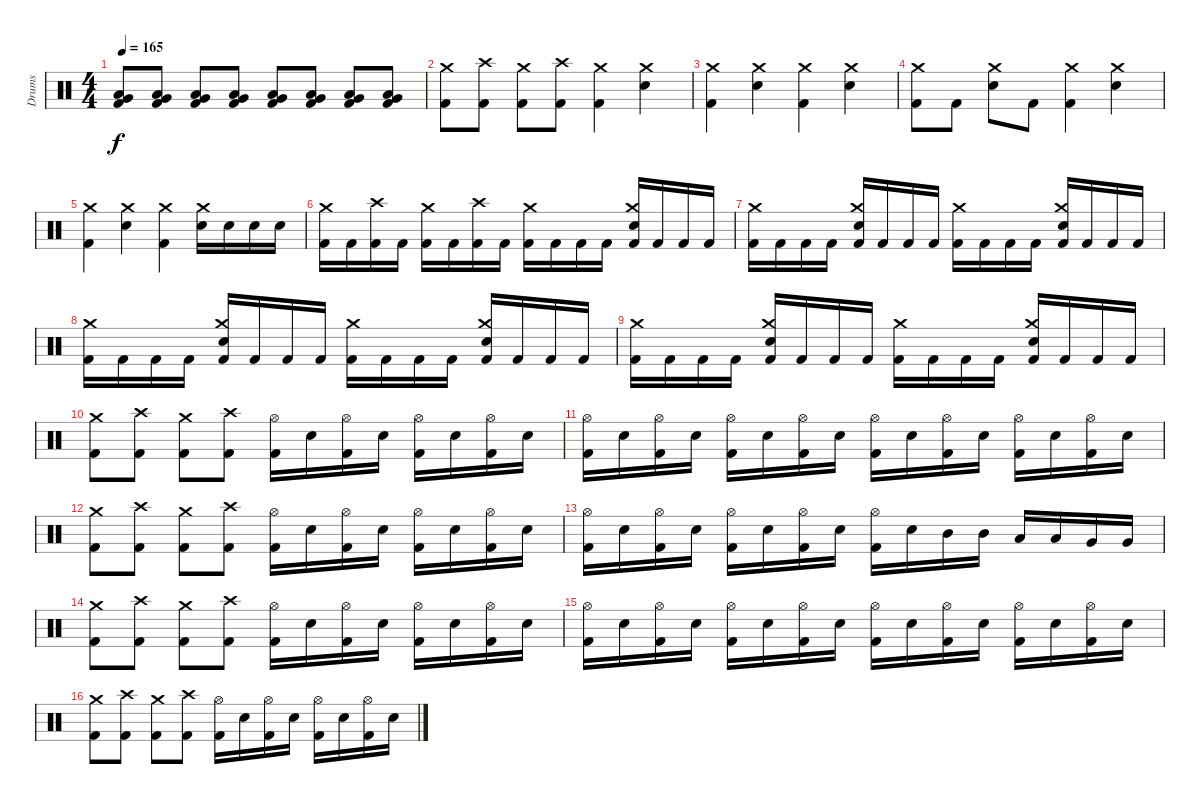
\track ("Drums" "Drums") {instrument percussion}
\staff {score}
\articulation defaults
\ts (4 4)
\tempo 165
\clef neutral
\ks c
("Very Low Tom (hit)" "Low Tom (hit)" "Kick (hit) 2").8{dy f} ("Very Low Tom (hit)" "Low Tom (hit)" "Kick (hit) 2").8 ("Very Low Tom (hit)" "Low Tom (hit)" "Kick (hit) 2").8 ("Very Low Tom (hit)" "Low Tom (hit)" "Kick (hit) 2").8 ("Very Low Tom (hit)" "Low Tom (hit)" "Kick (hit) 2").8 ("Very Low Tom (hit)" "Low Tom (hit)" "Kick (hit) 2").8 ("Very Low Tom (hit)" "Low Tom (hit)" "Kick (hit) 2").8 ("Very Low Tom (hit)" "Low Tom (hit)" "Kick (hit) 2").8 |
("Crash medium (hit)" "Kick (hit) 2").8 ("Crash high (hit)" "Kick (hit) 2").8 ("Crash medium (hit)" "Kick (hit) 2").8 ("Crash high (hit)" "Kick (hit) 2").8 ("Crash medium (hit)" "Kick (hit) 2").4 ("Crash medium (hit)" "Electric Snare (hit)").4 |
("Crash medium (hit)" "Kick (hit) 2").4 ("Crash medium (hit)" "Electric Snare (hit)").4 ("Crash medium (hit)" "Kick (hit) 2").4 ("Crash medium (hit)" "Electric Snare (hit)").4 |
("Crash medium (hit)" "Kick (hit) 2").8 "Kick (hit) 2".8 ("Crash medium (hit)" "Electric Snare (hit)").8 "Kick (hit) 2".8 ("Crash medium (hit)" "Kick (hit) 2").4 ("Crash medium (hit)" "Electric Snare (hit)").4 |
("Crash medium (hit)" "Kick (hit) 2").4 ("Crash medium (hit)" "Electric Snare (hit)").4 ("Crash medium (hit)" "Kick (hit) 2").4 ("Crash medium (hit)" "Electric Snare (hit)").16 "Electric Snare (hit)".16 "Electric Snare (hit)".16 "Electric Snare (hit)".16 |
("Crash medium (hit)" "Kick (hit) 2").16 "Kick (hit) 2".16 ("Crash high (hit)" "Kick (hit) 2").16 "Kick (hit) 2".16 ("Crash medium (hit)" "Kick (hit) 2").16 "Kick (hit) 2".16 ("Crash high (hit)" "Kick (hit) 2").16 "Kick (hit) 2".16 ("Crash medium (hit)" "Kick (hit) 2").16 "Kick (hit) 2".16 "Kick (hit) 2".16 "Kick (hit) 2".16 ("Crash medium (hit)" "Electric Snare (hit)" "Kick (hit) 2").16 "Kick (hit) 2".16 "Kick (hit) 2".16 "Kick (hit) 2".16 |
("Crash medium (hit)" "Kick (hit) 2").16 "Kick (hit) 2".16 "Kick (hit) 2".16 "Kick (hit) 2".16 ("Crash medium (hit)" "Electric Snare (hit)" "Kick (hit) 2").16 "Kick (hit) 2".16 "Kick (hit) 2".16 "Kick (hit) 2".16 ("Crash medium (hit)" "Kick (hit) 2").16 "Kick (hit) 2".16 "Kick (hit) 2".16 "Kick (hit) 2".16 ("Crash medium (hit)" "Electric Snare (hit)" "Kick (hit) 2").16 "Kick (hit) 2".16 "Kick (hit) 2".16 "Kick (hit) 2".16 |
("Crash medium (hit)" "Kick (hit) 2").16 "Kick (hit) 2".16 "Kick (hit) 2".16 "Kick (hit) 2".16 ("Crash medium (hit)" "Electric Snare (hit)" "Kick (hit) 2").16 "Kick (hit) 2".16 "Kick (hit) 2".16 "Kick (hit) 2".16 ("Crash medium (hit)" "Kick (hit) 2").16 "Kick (hit) 2".16 "Kick (hit) 2".16 "Kick (hit) 2".16 ("Crash medium (hit)" "Electric Snare (hit)" "Kick (hit) 2").16 "Kick (hit) 2".16 "Kick (hit) 2".16 "Kick (hit) 2".16 |
("Crash medium (hit)" "Kick (hit) 2").16 "Kick (hit) 2".16 "Kick (hit) 2".16 "Kick (hit) 2".16 ("Crash medium (hit)" "Electric Snare (hit)" "Kick (hit) 2").16 "Kick (hit) 2".16 "Kick (hit) 2".16 "Kick (hit) 2".16 ("Crash medium (hit)" "Kick (hit) 2").16 "Kick (hit) 2".16 "Kick (hit) 2".16 "Kick (hit) 2".16 ("Crash medium (hit)" "Electric Snare (hit)" "Kick (hit) 2").16 "Kick (hit) 2".16 "Kick (hit) 2".16 "Kick (hit) 2".16 |
("Crash medium (hit)" "Kick (hit) 2").8 ("Crash high (hit)" "Kick (hit) 2").8 ("Crash medium (hit)" "Kick (hit) 2").8 ("Crash high (hit)" "Kick (hit) 2").8 ("Hi-Hat (open)" "Kick (hit) 2").16 "Electric Snare (hit)".16 ("Hi-Hat (open)" "Kick (hit) 2").16 "Electric Snare (hit)".16 ("Hi-Hat (open)" "Kick (hit) 2").16 "Electric Snare (hit)".16 ("Hi-Hat (open)" "Kick (hit) 2").16 "Electric Snare (hit)".16 |
("Hi-Hat (open)" "Kick (hit) 2").16 "Electric Snare (hit)".16 ("Hi-Hat (open)" "Kick (hit) 2").16 "Electric Snare (hit)".16 ("Hi-Hat (open)" "Kick (hit) 2").16 "Electric Snare (hit)".16 ("Hi-Hat (open)" "Kick (hit) 2").16 "Electric Snare (hit)".16 ("Hi-Hat (open)" "Kick (hit) 2").16 "Electric Snare (hit)".16 ("Hi-Hat (open)" "Kick (hit) 2").16 "Electric Snare (hit)".16 ("Hi-Hat (open)" "Kick (hit) 2").16 "Electric Snare (hit)".16 ("Hi-Hat (open)" "Kick (hit) 2").16 "Electric Snare (hit)".16 |
("Crash medium (hit)" "Kick (hit) 2").8 ("Crash high (hit)" "Kick (hit) 2").8 ("Crash medium (hit)" "Kick (hit) 2").8 ("Crash high (hit)" "Kick (hit) 2").8 ("Hi-Hat (open)" "Kick (hit) 2").16 "Electric Snare (hit)".16 ("Hi-Hat (open)" "Kick (hit) 2").16 "Electric Snare (hit)".16 ("Hi-Hat (open)" "Kick (hit) 2").16 "Electric Snare (hit)".16 ("Hi-Hat (open)" "Kick (hit) 2").16 "Electric Snare (hit)".16 |
("Hi-Hat (open)" "Kick (hit) 2").16 "Electric Snare (hit)".16 ("Hi-Hat (open)" "Kick (hit) 2").16 "Electric Snare (hit)".16 ("Hi-Hat (open)" "Kick (hit) 2").16 "Electric Snare (hit)".16 ("Hi-Hat (open)" "Kick (hit) 2").16 "Electric Snare (hit)".16 ("Hi-Hat (open)" "Kick (hit) 2").16 "Electric Snare (hit)".16 "Mid Tom (hit)".16 "Mid Tom (hit)".16 "Low Tom (hit)".16 "Low Tom (hit)".16 "Very Low Tom (hit)".16 "Very Low Tom (hit)".16 |
("Crash medium (hit)" "Kick (hit) 2").8 ("Crash high (hit)" "Kick (hit) 2").8 ("Crash medium (hit)" "Kick (hit) 2").8 ("Crash high (hit)" "Kick (hit) 2").8 ("Hi-Hat (open)" "Kick (hit) 2").16 "Electric Snare (hit)".16 ("Hi-Hat (open)" "Kick (hit) 2").16 "Electric Snare (hit)".16 ("Hi-Hat (open)" "Kick (hit) 2").16 "Electric Snare (hit)".16 ("Hi-Hat (open)" "Kick (hit) 2").16 "Electric Snare (hit)".16 |
("Hi-Hat (open)" "Kick (hit) 2").16 "Electric Snare (hit)".16 ("Hi-Hat (open)" "Kick (hit) 2").16 "Electric Snare (hit)".16 ("Hi-Hat (open)" "Kick (hit) 2").16 "Electric Snare (hit)".16 ("Hi-Hat (open)" "Kick (hit) 2").16 "Electric Snare (hit)".16 ("Hi-Hat (open)" "Kick (hit) 2").16 "Electric Snare (hit)".16 ("Hi-Hat (open)" "Kick (hit) 2").16 "Electric Snare (hit)".16 ("Hi-Hat (open)" "Kick (hit) 2").16 "Electric Snare (hit)".16 ("Hi-Hat (open)" "Kick (hit) 2").16 "Electric Snare (hit)".16 |
("Crash medium (hit)" "Kick (hit) 2").8 ("Crash high (hit)" "Kick (hit) 2").8 ("Crash medium (hit)" "Kick (hit) 2").8 ("Crash high (hit)" "Kick (hit) 2").8 ("Hi-Hat (open)" "Kick (hit) 2").16 "Electric Snare (hit)".16 ("Hi-Hat (open)" "Kick (hit) 2").16 "Electric Snare (hit)".16 ("Hi-Hat (open)" "Kick (hit) 2").16 "Electric Snare (hit)".16 ("Hi-Hat (open)" "Kick (hit) 2").16 "Electric Snare (hit)".16
